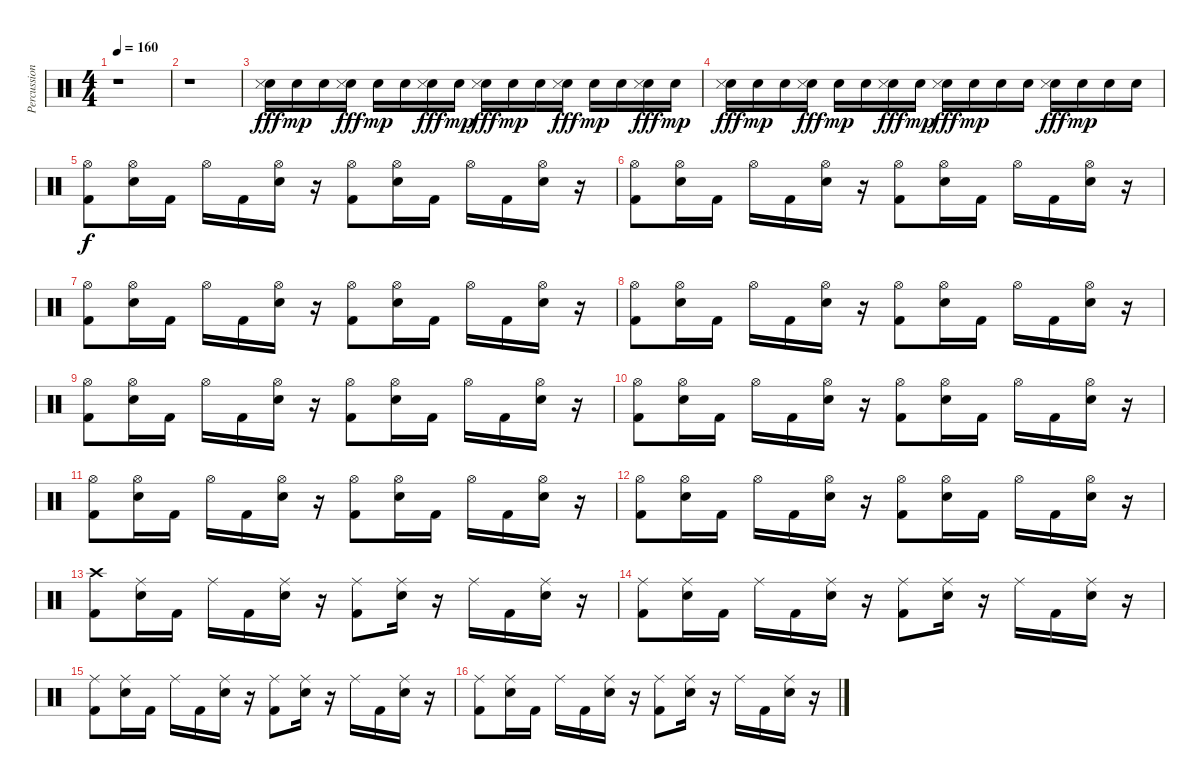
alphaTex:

\track ("Percussions" "Percussion") {instrument percussion}
\staff {score}
\articulation defaults
\ts (4 4)
\tempo 160
\clef neutral
\ks c
r.1{dy fff} |
r.1 |
("Snare (hit) 2" "Snare (side stick) 3").16 "Snare (hit) 2".16{dy mp} "Snare (hit) 2".16 ("Snare (hit) 2" "Snare (side stick) 3").16{dy fff} "Snare (hit) 2".16{dy mp} "Snare (hit) 2".16 ("Snare (hit) 2" "Snare (side stick) 3").16{dy fff} "Snare (hit) 2".16{dy mp} ("Snare (hit) 2" "Snare (side stick) 3").16{dy fff} "Snare (hit) 2".16{dy mp} "Snare (hit) 2".16 ("Snare (hit) 2" "Snare (side stick) 3").16{dy fff} "Snare (hit) 2".16{dy mp} "Snare (hit) 2".16 ("Snare (hit) 2" "Snare (side stick) 3").16{dy fff} "Snare (hit) 2".16{dy mp} |
("Snare (hit) 2" "Snare (side stick) 3").16{dy fff} "Snare (hit) 2".16{dy mp} "Snare (hit) 2".16 ("Snare (hit) 2" "Snare (side stick) 3").16{dy fff} "Snare (hit) 2".16{dy mp} "Snare (hit) 2".16 ("Snare (hit) 2" "Snare (side stick) 3").16{dy fff} "Snare (hit) 2".16{dy mp} ("Snare (hit) 2" "Snare (side stick) 3").16{dy fff} "Snare (hit) 2".16{dy mp} "Snare (hit) 2".16 "Snare (hit) 2".16 ("Snare (hit) 2" "Snare (side stick) 3").16{dy fff} "Snare (hit) 2".16{dy mp} "Snare (hit) 2".16 "Snare (hit) 2".16 |
("Hi-Hat (open)" "Kick (hit) 2").8{dy f} ("Hi-Hat (open)" "Snare (hit) 2").16 "Kick (hit) 2".16 "Hi-Hat (open)".16 "Kick (hit) 2".16 ("Hi-Hat (open)" "Snare (hit) 2").16 r.16 ("Hi-Hat (open)" "Kick (hit) 2").8 ("Hi-Hat (open)" "Snare (hit) 2").16 "Kick (hit) 2".16 "Hi-Hat (open)".16 "Kick (hit) 2".16 ("Hi-Hat (open)" "Snare (hit) 2").16 r.16 |
("Hi-Hat (open)" "Kick (hit) 2").8 ("Hi-Hat (open)" "Snare (hit) 2").16 "Kick (hit) 2".16 "Hi-Hat (open)".16 "Kick (hit) 2".16 ("Hi-Hat (open)" "Snare (hit) 2").16 r.16 ("Hi-Hat (open)" "Kick (hit) 2").8 ("Hi-Hat (open)" "Snare (hit) 2").16 "Kick (hit) 2".16 "Hi-Hat (open)".16 "Kick (hit) 2".16 ("Hi-Hat (open)" "Snare (hit) 2").16 r.16 |
("Hi-Hat (open)" "Kick (hit) 2").8 ("Hi-Hat (open)" "Snare (hit) 2").16 "Kick (hit) 2".16 "Hi-Hat (open)".16 "Kick (hit) 2".16 ("Hi-Hat (open)" "Snare (hit) 2").16 r.16 ("Hi-Hat (open)" "Kick (hit) 2").8 ("Hi-Hat (open)" "Snare (hit) 2").16 "Kick (hit) 2".16 "Hi-Hat (open)".16 "Kick (hit) 2".16 ("Hi-Hat (open)" "Snare (hit) 2").16 r.16 |
("Hi-Hat (open)" "Kick (hit) 2").8 ("Hi-Hat (open)" "Snare (hit) 2").16 "Kick (hit) 2".16 "Hi-Hat (open)".16 "Kick (hit) 2".16 ("Hi-Hat (open)" "Snare (hit) 2").16 r.16 ("Hi-Hat (open)" "Kick (hit) 2").8 ("Hi-Hat (open)" "Snare (hit) 2").16 "Kick (hit) 2".16 "Hi-Hat (open)".16 "Kick (hit) 2".16 ("Hi-Hat (open)" "Snare (hit) 2").16 r.16 |
("Hi-Hat (open)" "Kick (hit) 2").8 ("Hi-Hat (open)" "Snare (hit) 2").16 "Kick (hit) 2".16 "Hi-Hat (open)".16 "Kick (hit) 2".16 ("Hi-Hat (open)" "Snare (hit) 2").16 r.16 ("Hi-Hat (open)" "Kick (hit) 2").8 ("Hi-Hat (open)" "Snare (hit) 2").16 "Kick (hit) 2".16 "Hi-Hat (open)".16 "Kick (hit) 2".16 ("Hi-Hat (open)" "Snare (hit) 2").16 r.16 |
("Hi-Hat (open)" "Kick (hit) 2").8 ("Hi-Hat (open)" "Snare (hit) 2").16 "Kick (hit) 2".16 "Hi-Hat (open)".16 "Kick (hit) 2".16 ("Hi-Hat (open)" "Snare (hit) 2").16 r.16 ("Hi-Hat (open)" "Kick (hit) 2").8 ("Hi-Hat (open)" "Snare (hit) 2").16 "Kick (hit) 2".16 "Hi-Hat (open)".16 "Kick (hit) 2".16 ("Hi-Hat (open)" "Snare (hit) 2").16 r.16 |
("Hi-Hat (open)" "Kick (hit) 2").8 ("Hi-Hat (open)" "Snare (hit) 2").16 "Kick (hit) 2".16 "Hi-Hat (open)".16 "Kick (hit) 2".16 ("Hi-Hat (open)" "Snare (hit) 2").16 r.16 ("Hi-Hat (open)" "Kick (hit) 2").8 ("Hi-Hat (open)" "Snare (hit) 2").16 "Kick (hit) 2".16 "Hi-Hat (open)".16 "Kick (hit) 2".16 ("Hi-Hat (open)" "Snare (hit) 2").16 r.16 |
("Hi-Hat (open)" "Kick (hit) 2").8 ("Hi-Hat (open)" "Snare (hit) 2").16 "Kick (hit) 2".16 "Hi-Hat (open)".16 "Kick (hit) 2".16 ("Hi-Hat (open)" "Snare (hit) 2").16 r.16 ("Hi-Hat (open)" "Kick (hit) 2").8 ("Hi-Hat (open)" "Snare (hit) 2").16 "Kick (hit) 2".16 "Hi-Hat (open)".16 "Kick (hit) 2".16 ("Hi-Hat (open)" "Snare (hit) 2").16 r.16 |
("Crash high (hit)" "Kick (hit) 2").8 ("Ride (middle)" "Snare (hit) 2").16 "Kick (hit) 2".16 "Ride (middle)".16 "Kick (hit) 2".16 ("Ride (middle)" "Snare (hit) 2").16 r.16 ("Ride (middle)" "Kick (hit) 2").8 ("Ride (middle)" "Snare (hit) 2").16 r.16 "Ride (middle)".16 "Kick (hit) 2".16 ("Ride (middle)" "Snare (hit) 2").16 r.16 |
("Ride (middle)" "Kick (hit) 2").8 ("Ride (middle)" "Snare (hit) 2").16 "Kick (hit) 2".16 "Ride (middle)".16 "Kick (hit) 2".16 ("Ride (middle)" "Snare (hit) 2").16 r.16 ("Ride (middle)" "Kick (hit) 2").8 ("Ride (middle)" "Snare (hit) 2").16 r.16 "Ride (middle)".16 "Kick (hit) 2".16 ("Ride (middle)" "Snare (hit) 2").16 r.16 |
("Ride (middle)" "Kick (hit) 2").8 ("Ride (middle)" "Snare (hit) 2").16 "Kick (hit) 2".16 "Ride (middle)".16 "Kick (hit) 2".16 ("Ride (middle)" "Snare (hit) 2").16 r.16 ("Ride (middle)" "Kick (hit) 2").8 ("Ride (middle)" "Snare (hit) 2").16 r.16 "Ride (middle)".16 "Kick (hit) 2".16 ("Ride (middle)" "Snare (hit) 2").16 r.16 |
("Ride (middle)" "Kick (hit) 2").8 ("Ride (middle)" "Snare (hit) 2").16 "Kick (hit) 2".16 "Ride (middle)".16 "Kick (hit) 2".16 ("Ride (middle)" "Snare (hit) 2").16 r.16 ("Ride (middle)" "Kick (hit) 2").8 ("Ride (middle)" "Snare (hit) 2").16 r.16 "Ride (middle)".16 "Kick (hit) 2".16 ("Ride (middle)" "Snare (hit) 2").16 r.16
